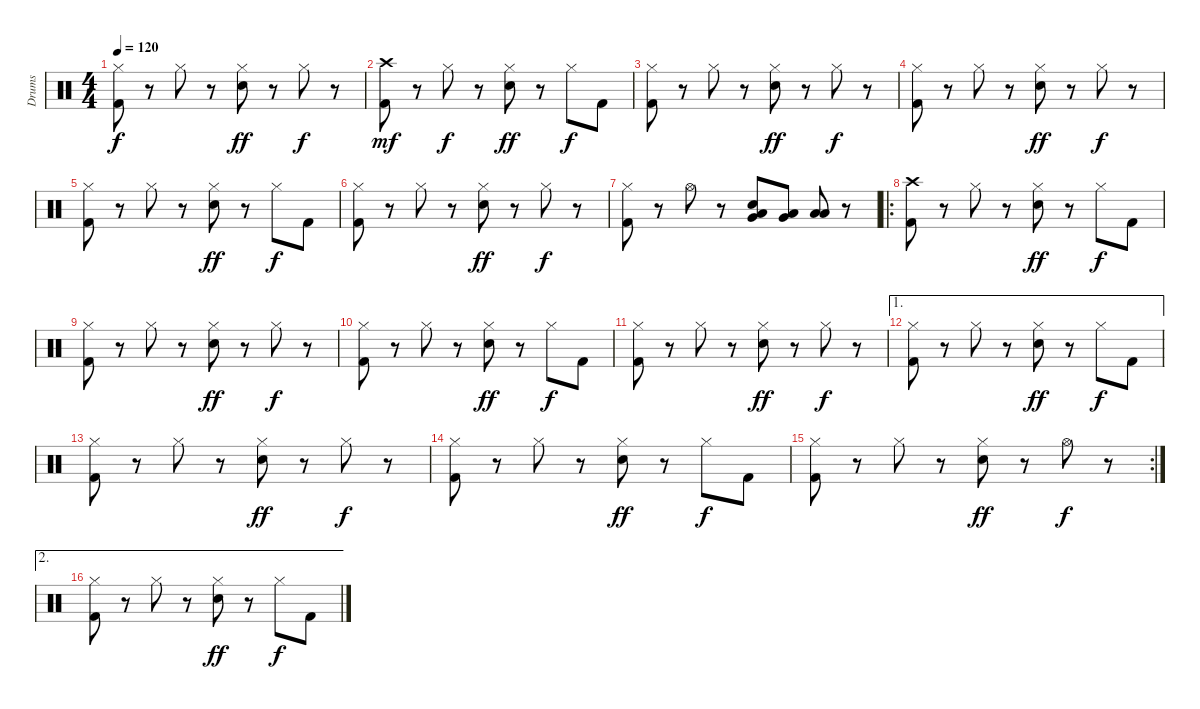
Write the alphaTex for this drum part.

\track ("Drums" "Drums") {instrument percussion}
\staff {score}
\articulation defaults
\ts (4 4)
\tempo 120
\clef neutral
\ks c
("Hi-Hat (closed)" "Kick (hit) 2").8{dy f} r.8 "Hi-Hat (closed)".8 r.8 ("Hi-Hat (closed)" "Electric Snare (hit)").8{dy ff} r.8 "Hi-Hat (closed)".8{dy f} r.8 |
("Crash high (hit)" "Kick (hit) 2").8{dy mf} r.8 "Hi-Hat (closed)".8{dy f} r.8 ("Hi-Hat (closed)" "Electric Snare (hit)").8{dy ff} r.8 "Hi-Hat (closed)".8{dy f} "Kick (hit) 2".8 |
("Hi-Hat (closed)" "Kick (hit) 2").8 r.8 "Hi-Hat (closed)".8 r.8 ("Hi-Hat (closed)" "Electric Snare (hit)").8{dy ff} r.8 "Hi-Hat (closed)".8{dy f} r.8 |
("Hi-Hat (closed)" "Kick (hit) 2").8 r.8 "Hi-Hat (closed)".8 r.8 ("Hi-Hat (closed)" "Electric Snare (hit)").8{dy ff} r.8 "Hi-Hat (closed)".8{dy f} r.8 |
("Hi-Hat (closed)" "Kick (hit) 2").8 r.8 "Hi-Hat (closed)".8 r.8 ("Hi-Hat (closed)" "Electric Snare (hit)").8{dy ff} r.8 "Hi-Hat (closed)".8{dy f} "Kick (hit) 2".8 |
("Hi-Hat (closed)" "Kick (hit) 2").8 r.8 "Hi-Hat (closed)".8 r.8 ("Hi-Hat (closed)" "Electric Snare (hit)").8{dy ff} r.8 "Hi-Hat (closed)".8{dy f} r.8 |
("Hi-Hat (closed)" "Kick (hit) 2").8 r.8 "Hi-Hat (open)".8 r.8 ("Low Tom (hit)" "Very Low Tom (hit)" "Electric Snare (hit)").8 ("Very Low Tom (hit)" "Low Floor Tom (hit)").8 ("Low Floor Tom (hit)" "Low Floor Tom (hit)").8 r.8 |
\ro
("Crash high (hit)" "Kick (hit) 2").8 r.8 "Hi-Hat (closed)".8 r.8 ("Hi-Hat (closed)" "Electric Snare (hit)").8{dy ff} r.8 "Hi-Hat (closed)".8{dy f} "Kick (hit) 2".8 |
("Hi-Hat (closed)" "Kick (hit) 2").8 r.8 "Hi-Hat (closed)".8 r.8 ("Hi-Hat (closed)" "Electric Snare (hit)").8{dy ff} r.8 "Hi-Hat (closed)".8{dy f} r.8 |
("Hi-Hat (closed)" "Kick (hit) 2").8 r.8 "Hi-Hat (closed)".8 r.8 ("Hi-Hat (closed)" "Electric Snare (hit)").8{dy ff} r.8 "Hi-Hat (closed)".8{dy f} "Kick (hit) 2".8 |
("Hi-Hat (closed)" "Kick (hit) 2").8 r.8 "Hi-Hat (closed)".8 r.8 ("Hi-Hat (closed)" "Electric Snare (hit)").8{dy ff} r.8 "Hi-Hat (closed)".8{dy f} r.8 |
\ae 1
("Hi-Hat (closed)" "Kick (hit) 2").8 r.8 "Hi-Hat (closed)".8 r.8 ("Hi-Hat (closed)" "Electric Snare (hit)").8{dy ff} r.8 "Hi-Hat (closed)".8{dy f} "Kick (hit) 2".8 |
("Hi-Hat (closed)" "Kick (hit) 2").8 r.8 "Hi-Hat (closed)".8 r.8 ("Hi-Hat (closed)" "Electric Snare (hit)").8{dy ff} r.8 "Hi-Hat (closed)".8{dy f} r.8 |
("Hi-Hat (closed)" "Kick (hit) 2").8 r.8 "Hi-Hat (closed)".8 r.8 ("Hi-Hat (closed)" "Electric Snare (hit)").8{dy ff} r.8 "Hi-Hat (closed)".8{dy f} "Kick (hit) 2".8 |
\rc 2
("Hi-Hat (closed)" "Kick (hit) 2").8 r.8 "Hi-Hat (closed)".8 r.8 ("Hi-Hat (closed)" "Electric Snare (hit)").8{dy ff} r.8 "Hi-Hat (open)".8{dy f} r.8 |
\ae 2
("Hi-Hat (closed)" "Kick (hit) 2").8 r.8 "Hi-Hat (closed)".8 r.8 ("Hi-Hat (closed)" "Electric Snare (hit)").8{dy ff} r.8 "Hi-Hat (closed)".8{dy f} "Kick (hit) 2".8
